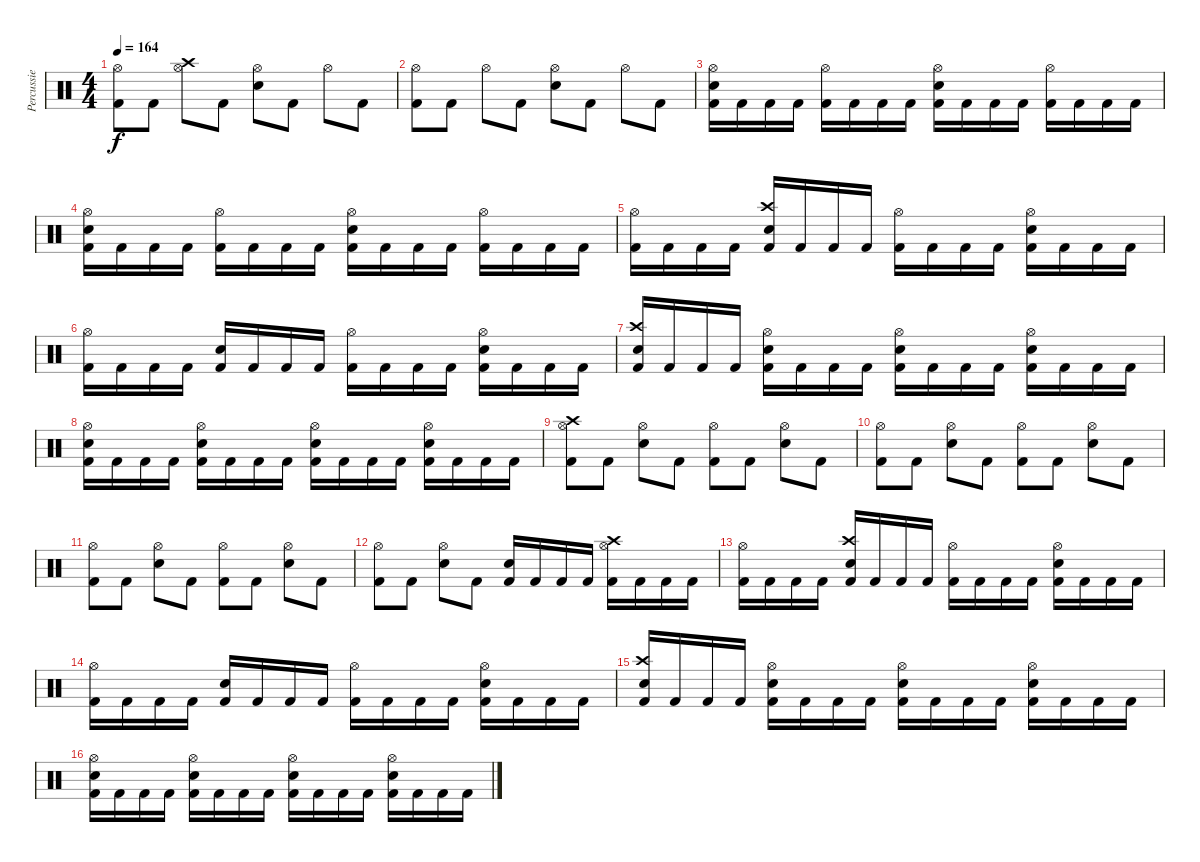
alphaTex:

\track ("Percussie" "Percussie") {instrument percussion}
\staff {score}
\articulation defaults
\ts (4 4)
\tempo 164
\clef neutral
\ks c
("Hi-Hat (open)" "Kick (hit) 2").8{dy f} "Kick (hit) 2".8 ("Hi-Hat (open)" "Crash high (hit)").8 "Kick (hit) 2".8 ("Hi-Hat (open)" "Electric Snare (hit)").8 "Kick (hit) 2".8 "Hi-Hat (open)".8 "Kick (hit) 2".8 |
("Hi-Hat (open)" "Kick (hit) 2").8 "Kick (hit) 2".8 "Hi-Hat (open)".8 "Kick (hit) 2".8 ("Hi-Hat (open)" "Electric Snare (hit)").8 "Kick (hit) 2".8 "Hi-Hat (open)".8 "Kick (hit) 2".8 |
("Hi-Hat (open)" "Electric Snare (hit)" "Kick (hit) 2").16 "Kick (hit) 2".16 "Kick (hit) 2".16 "Kick (hit) 2".16 ("Hi-Hat (open)" "Kick (hit) 2").16 "Kick (hit) 2".16 "Kick (hit) 2".16 "Kick (hit) 2".16 ("Hi-Hat (open)" "Electric Snare (hit)" "Kick (hit) 2").16 "Kick (hit) 2".16 "Kick (hit) 2".16 "Kick (hit) 2".16 ("Hi-Hat (open)" "Kick (hit) 2").16 "Kick (hit) 2".16 "Kick (hit) 2".16 "Kick (hit) 2".16 |
("Hi-Hat (open)" "Electric Snare (hit)" "Kick (hit) 2").16 "Kick (hit) 2".16 "Kick (hit) 2".16 "Kick (hit) 2".16 ("Hi-Hat (open)" "Kick (hit) 2").16 "Kick (hit) 2".16 "Kick (hit) 2".16 "Kick (hit) 2".16 ("Hi-Hat (open)" "Electric Snare (hit)" "Kick (hit) 2").16 "Kick (hit) 2".16 "Kick (hit) 2".16 "Kick (hit) 2".16 ("Hi-Hat (open)" "Kick (hit) 2").16 "Kick (hit) 2".16 "Kick (hit) 2".16 "Kick (hit) 2".16 |
("Hi-Hat (open)" "Kick (hit) 2").16 "Kick (hit) 2".16 "Kick (hit) 2".16 "Kick (hit) 2".16 ("Crash high (hit)" "Electric Snare (hit)" "Kick (hit) 2").16 "Kick (hit) 2".16 "Kick (hit) 2".16 "Kick (hit) 2".16 ("Hi-Hat (open)" "Kick (hit) 2").16 "Kick (hit) 2".16 "Kick (hit) 2".16 "Kick (hit) 2".16 ("Hi-Hat (open)" "Electric Snare (hit)" "Kick (hit) 2").16 "Kick (hit) 2".16 "Kick (hit) 2".16 "Kick (hit) 2".16 |
("Hi-Hat (open)" "Kick (hit) 2").16 "Kick (hit) 2".16 "Kick (hit) 2".16 "Kick (hit) 2".16 ("Electric Snare (hit)" "Kick (hit) 2").16 "Kick (hit) 2".16 "Kick (hit) 2".16 "Kick (hit) 2".16 ("Hi-Hat (open)" "Kick (hit) 2").16 "Kick (hit) 2".16 "Kick (hit) 2".16 "Kick (hit) 2".16 ("Hi-Hat (open)" "Electric Snare (hit)" "Kick (hit) 2").16 "Kick (hit) 2".16 "Kick (hit) 2".16 "Kick (hit) 2".16 |
("Crash high (hit)" "Electric Snare (hit)" "Kick (hit) 2").16 "Kick (hit) 2".16 "Kick (hit) 2".16 "Kick (hit) 2".16 ("Hi-Hat (open)" "Electric Snare (hit)" "Kick (hit) 2").16 "Kick (hit) 2".16 "Kick (hit) 2".16 "Kick (hit) 2".16 ("Hi-Hat (open)" "Electric Snare (hit)" "Kick (hit) 2").16 "Kick (hit) 2".16 "Kick (hit) 2".16 "Kick (hit) 2".16 ("Hi-Hat (open)" "Electric Snare (hit)" "Kick (hit) 2").16 "Kick (hit) 2".16 "Kick (hit) 2".16 "Kick (hit) 2".16 |
("Hi-Hat (open)" "Electric Snare (hit)" "Kick (hit) 2").16 "Kick (hit) 2".16 "Kick (hit) 2".16 "Kick (hit) 2".16 ("Hi-Hat (open)" "Electric Snare (hit)" "Kick (hit) 2").16 "Kick (hit) 2".16 "Kick (hit) 2".16 "Kick (hit) 2".16 ("Hi-Hat (open)" "Electric Snare (hit)" "Kick (hit) 2").16 "Kick (hit) 2".16 "Kick (hit) 2".16 "Kick (hit) 2".16 ("Hi-Hat (open)" "Electric Snare (hit)" "Kick (hit) 2").16 "Kick (hit) 2".16 "Kick (hit) 2".16 "Kick (hit) 2".16 |
("Hi-Hat (open)" "Crash high (hit)" "Kick (hit) 2").8 "Kick (hit) 2".8 ("Hi-Hat (open)" "Electric Snare (hit)").8 "Kick (hit) 2".8 ("Hi-Hat (open)" "Kick (hit) 2").8 "Kick (hit) 2".8 ("Hi-Hat (open)" "Electric Snare (hit)").8 "Kick (hit) 2".8 |
("Hi-Hat (open)" "Kick (hit) 2").8 "Kick (hit) 2".8 ("Hi-Hat (open)" "Electric Snare (hit)").8 "Kick (hit) 2".8 ("Hi-Hat (open)" "Kick (hit) 2").8 "Kick (hit) 2".8 ("Hi-Hat (open)" "Electric Snare (hit)").8 "Kick (hit) 2".8 |
("Hi-Hat (open)" "Kick (hit) 2").8 "Kick (hit) 2".8 ("Hi-Hat (open)" "Electric Snare (hit)").8 "Kick (hit) 2".8 ("Hi-Hat (open)" "Kick (hit) 2").8 "Kick (hit) 2".8 ("Hi-Hat (open)" "Electric Snare (hit)").8 "Kick (hit) 2".8 |
("Hi-Hat (open)" "Kick (hit) 2").8 "Kick (hit) 2".8 ("Hi-Hat (open)" "Electric Snare (hit)").8 "Kick (hit) 2".8 ("Electric Snare (hit)" "Kick (hit) 2").16 "Kick (hit) 2".16 "Kick (hit) 2".16 "Kick (hit) 2".16 ("Hi-Hat (open)" "Crash high (hit)" "Kick (hit) 2").16 "Kick (hit) 2".16 "Kick (hit) 2".16 "Kick (hit) 2".16 |
("Hi-Hat (open)" "Kick (hit) 2").16 "Kick (hit) 2".16 "Kick (hit) 2".16 "Kick (hit) 2".16 ("Crash high (hit)" "Electric Snare (hit)" "Kick (hit) 2").16 "Kick (hit) 2".16 "Kick (hit) 2".16 "Kick (hit) 2".16 ("Hi-Hat (open)" "Kick (hit) 2").16 "Kick (hit) 2".16 "Kick (hit) 2".16 "Kick (hit) 2".16 ("Hi-Hat (open)" "Electric Snare (hit)" "Kick (hit) 2").16 "Kick (hit) 2".16 "Kick (hit) 2".16 "Kick (hit) 2".16 |
("Hi-Hat (open)" "Kick (hit) 2").16 "Kick (hit) 2".16 "Kick (hit) 2".16 "Kick (hit) 2".16 ("Electric Snare (hit)" "Kick (hit) 2").16 "Kick (hit) 2".16 "Kick (hit) 2".16 "Kick (hit) 2".16 ("Hi-Hat (open)" "Kick (hit) 2").16 "Kick (hit) 2".16 "Kick (hit) 2".16 "Kick (hit) 2".16 ("Hi-Hat (open)" "Electric Snare (hit)" "Kick (hit) 2").16 "Kick (hit) 2".16 "Kick (hit) 2".16 "Kick (hit) 2".16 |
("Crash high (hit)" "Electric Snare (hit)" "Kick (hit) 2").16 "Kick (hit) 2".16 "Kick (hit) 2".16 "Kick (hit) 2".16 ("Hi-Hat (open)" "Electric Snare (hit)" "Kick (hit) 2").16 "Kick (hit) 2".16 "Kick (hit) 2".16 "Kick (hit) 2".16 ("Hi-Hat (open)" "Electric Snare (hit)" "Kick (hit) 2").16 "Kick (hit) 2".16 "Kick (hit) 2".16 "Kick (hit) 2".16 ("Hi-Hat (open)" "Electric Snare (hit)" "Kick (hit) 2").16 "Kick (hit) 2".16 "Kick (hit) 2".16 "Kick (hit) 2".16 |
("Hi-Hat (open)" "Electric Snare (hit)" "Kick (hit) 2").16 "Kick (hit) 2".16 "Kick (hit) 2".16 "Kick (hit) 2".16 ("Hi-Hat (open)" "Electric Snare (hit)" "Kick (hit) 2").16 "Kick (hit) 2".16 "Kick (hit) 2".16 "Kick (hit) 2".16 ("Hi-Hat (open)" "Electric Snare (hit)" "Kick (hit) 2").16 "Kick (hit) 2".16 "Kick (hit) 2".16 "Kick (hit) 2".16 ("Hi-Hat (open)" "Electric Snare (hit)" "Kick (hit) 2").16 "Kick (hit) 2".16 "Kick (hit) 2".16 "Kick (hit) 2".16
